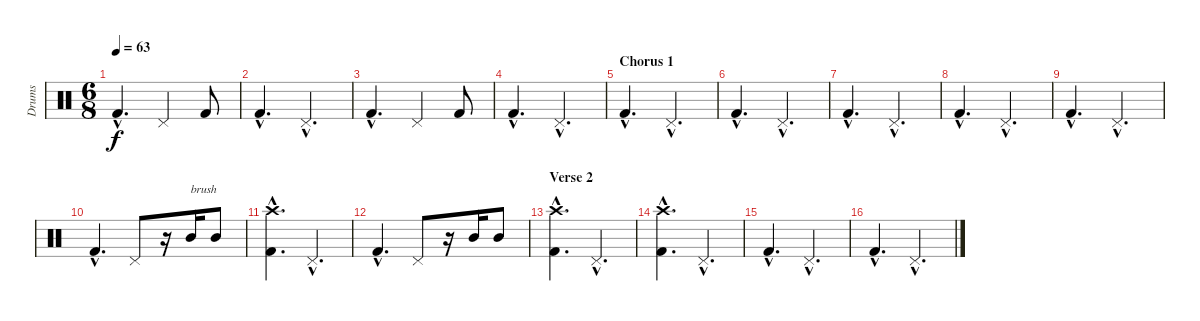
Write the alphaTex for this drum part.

\track ("Drums" "Drums") {instrument percussion}
\staff {score}
\articulation defaults
\ts (6 8)
\tempo 63
\clef neutral
\ks c "Kick (hit) 2"{hac}.4{d dy f} "Pedal Hi-Hat (hit)".4 "Kick (hit) 2".8
|
"Kick (hit) 2"{hac}.4{d} "Pedal Hi-Hat (hit)"{hac}.4{d} |
"Kick (hit) 2"{hac}.4{d} "Pedal Hi-Hat (hit)".4 "Kick (hit) 2".8 |
"Kick (hit) 2"{hac}.4{d} "Pedal Hi-Hat (hit)"{hac}.4{d} |
\section ("" "Chorus 1")
"Kick (hit) 2"{hac}.4{d} "Pedal Hi-Hat (hit)"{hac}.4{d} |
"Kick (hit) 2"{hac}.4{d} "Pedal Hi-Hat (hit)"{hac}.4{d} |
"Kick (hit) 2"{hac}.4{d} "Pedal Hi-Hat (hit)"{hac}.4{d} |
"Kick (hit) 2"{hac}.4{d} "Pedal Hi-Hat (hit)"{hac}.4{d} |
"Kick (hit) 2"{hac}.4{d} "Pedal Hi-Hat (hit)"{hac}.4{d} |
"Kick (hit) 2"{hac}.4{d} "Pedal Hi-Hat (hit)".8 r.16 "Mid Tom (hit)".16{txt "brush"} "Mid Tom (hit)".8 |
("Crash high (hit)"{hac} "Kick (hit) 2"{hac}).4{d} "Pedal Hi-Hat (hit)"{hac}.4{d} |
"Kick (hit) 2"{hac}.4{d} "Pedal Hi-Hat (hit)".8 r.16 "Mid Tom (hit)".16 "Mid Tom (hit)".8 |
\section ("" "Verse 2")
("Crash high (hit)"{hac} "Kick (hit) 2"{hac}).4{d} "Pedal Hi-Hat (hit)"{hac}.4{d} |
("Crash high (hit)"{hac} "Kick (hit) 2"{hac}).4{d} "Pedal Hi-Hat (hit)"{hac}.4{d} |
"Kick (hit) 2"{hac}.4{d} "Pedal Hi-Hat (hit)"{hac}.4{d} |
"Kick (hit) 2"{hac}.4{d} "Pedal Hi-Hat (hit)"{hac}.4{d}
